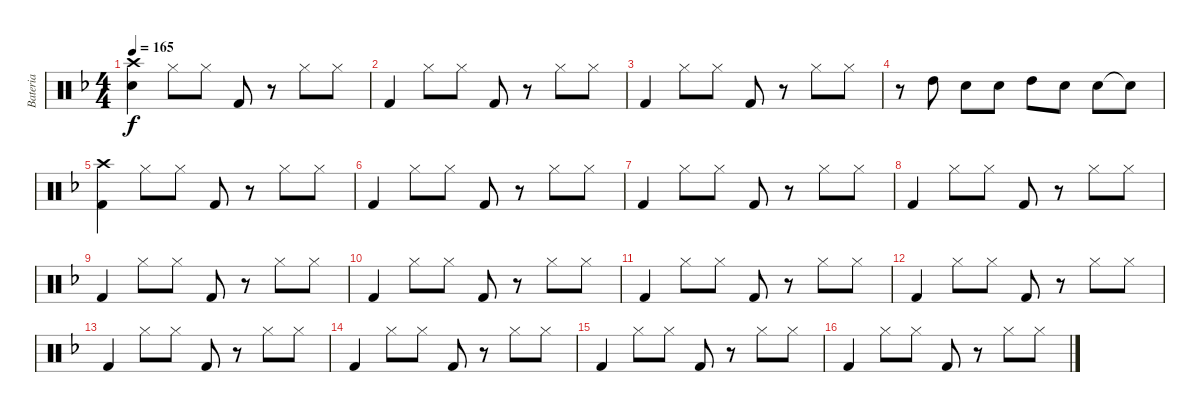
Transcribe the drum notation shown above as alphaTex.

\track ("Bateria" "Bateria") {instrument percussion}
\staff {score}
\articulation defaults
\ts (4 4)
\tempo 165
\clef neutral
\ks dminor
("Crash high (hit)" "Snare (hit) 2").4{dy f} "Hi-Hat (closed)".8 "Hi-Hat (closed)".8 "Kick (hit) 2".8 r.8 "Hi-Hat (closed)".8 "Hi-Hat (closed)".8 |
"Kick (hit) 2".4 "Hi-Hat (closed)".8 "Hi-Hat (closed)".8 "Kick (hit) 2".8 r.8 "Hi-Hat (closed)".8 "Hi-Hat (closed)".8 |
"Kick (hit) 2".4 "Hi-Hat (closed)".8 "Hi-Hat (closed)".8 "Kick (hit) 2".8 r.8 "Hi-Hat (closed)".8 "Hi-Hat (closed)".8 |
r.8 "High Tom (hit)".8 "Snare (hit) 2".8 "Snare (hit) 2".8 "High Tom (hit)".8 "Snare (hit) 2".8 "Snare (hit) 2".8 "Snare (hit)"{t}.8 |
("Crash high (hit)" "Kick (hit) 2").4 "Hi-Hat (closed)".8 "Hi-Hat (closed)".8 "Kick (hit) 2".8 r.8 "Hi-Hat (closed)".8 "Hi-Hat (closed)".8 |
"Kick (hit) 2".4 "Hi-Hat (closed)".8 "Hi-Hat (closed)".8 "Kick (hit) 2".8 r.8 "Hi-Hat (closed)".8 "Hi-Hat (closed)".8 |
"Kick (hit) 2".4 "Hi-Hat (closed)".8 "Hi-Hat (closed)".8 "Kick (hit) 2".8 r.8 "Hi-Hat (closed)".8 "Hi-Hat (closed)".8 |
"Kick (hit) 2".4 "Hi-Hat (closed)".8 "Hi-Hat (closed)".8 "Kick (hit) 2".8 r.8 "Hi-Hat (closed)".8 "Hi-Hat (closed)".8 |
"Kick (hit) 2".4 "Hi-Hat (closed)".8 "Hi-Hat (closed)".8 "Kick (hit) 2".8 r.8 "Hi-Hat (closed)".8 "Hi-Hat (closed)".8 |
"Kick (hit) 2".4 "Hi-Hat (closed)".8 "Hi-Hat (closed)".8 "Kick (hit) 2".8 r.8 "Hi-Hat (closed)".8 "Hi-Hat (closed)".8 |
"Kick (hit) 2".4 "Hi-Hat (closed)".8 "Hi-Hat (closed)".8 "Kick (hit) 2".8 r.8 "Hi-Hat (closed)".8 "Hi-Hat (closed)".8 |
"Kick (hit) 2".4 "Hi-Hat (closed)".8 "Hi-Hat (closed)".8 "Kick (hit) 2".8 r.8 "Hi-Hat (closed)".8 "Hi-Hat (closed)".8 |
"Kick (hit) 2".4 "Hi-Hat (closed)".8 "Hi-Hat (closed)".8 "Kick (hit) 2".8 r.8 "Hi-Hat (closed)".8 "Hi-Hat (closed)".8 |
"Kick (hit) 2".4 "Hi-Hat (closed)".8 "Hi-Hat (closed)".8 "Kick (hit) 2".8 r.8 "Hi-Hat (closed)".8 "Hi-Hat (closed)".8 |
"Kick (hit) 2".4 "Hi-Hat (closed)".8 "Hi-Hat (closed)".8 "Kick (hit) 2".8 r.8 "Hi-Hat (closed)".8 "Hi-Hat (closed)".8 |
"Kick (hit) 2".4 "Hi-Hat (closed)".8 "Hi-Hat (closed)".8 "Kick (hit) 2".8 r.8 "Hi-Hat (closed)".8 "Hi-Hat (closed)".8
